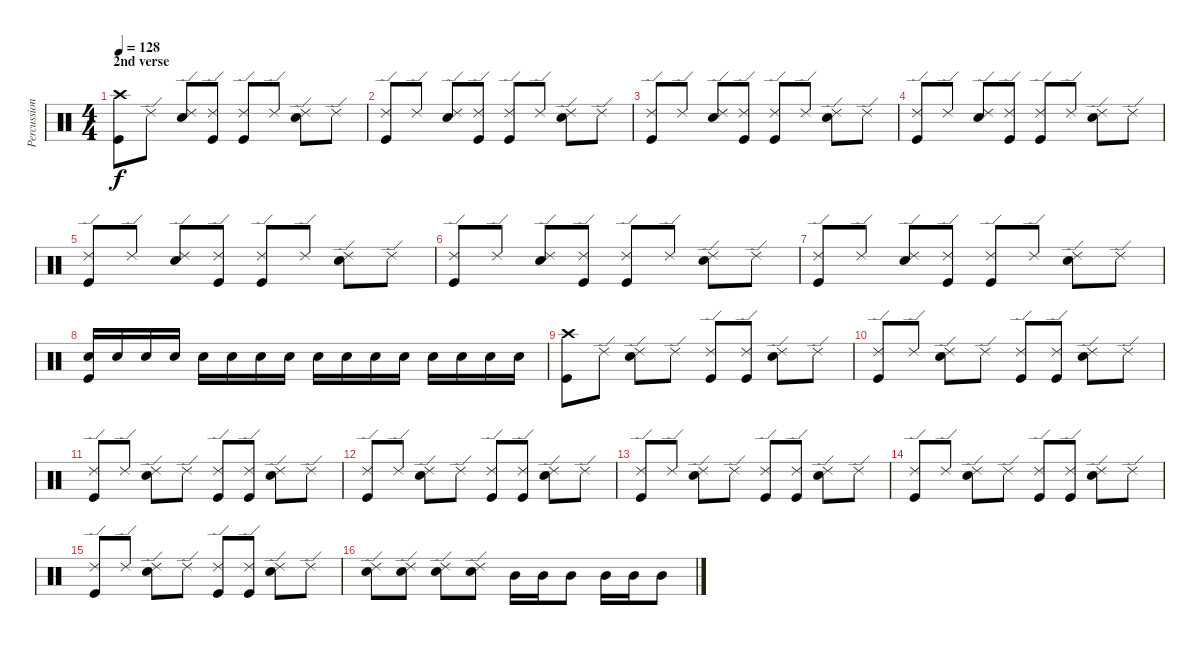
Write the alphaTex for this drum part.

\track ("Percussion" "Percussion") {instrument percussion}
\staff {score}
\articulation defaults
\ts (4 4)
\section ("" "2nd verse")
\tempo 128
\clef neutral
\ks c
("Crash high (hit)" "Kick (hit)").8{dy f} "Ride (edge) 2".8 ("Ride (edge) 2" "Snare (hit) 2").8 ("Ride (edge) 2" "Kick (hit)").8 ("Ride (edge) 2" "Kick (hit)").8 "Ride (edge) 2".8 ("Ride (edge) 2" "Snare (hit) 2").8 "Ride (edge) 2".8 |
("Ride (edge) 2" "Kick (hit)").8 "Ride (edge) 2".8 ("Ride (edge) 2" "Snare (hit) 2").8 ("Ride (edge) 2" "Kick (hit)").8 ("Ride (edge) 2" "Kick (hit)").8 "Ride (edge) 2".8 ("Ride (edge) 2" "Snare (hit) 2").8 "Ride (edge) 2".8 |
("Ride (edge) 2" "Kick (hit)").8 "Ride (edge) 2".8 ("Ride (edge) 2" "Snare (hit) 2").8 ("Ride (edge) 2" "Kick (hit)").8 ("Ride (edge) 2" "Kick (hit)").8 "Ride (edge) 2".8 ("Ride (edge) 2" "Snare (hit) 2").8 "Ride (edge) 2".8 |
("Ride (edge) 2" "Kick (hit)").8 "Ride (edge) 2".8 ("Ride (edge) 2" "Snare (hit) 2").8 ("Ride (edge) 2" "Kick (hit)").8 ("Ride (edge) 2" "Kick (hit)").8 "Ride (edge) 2".8 ("Ride (edge) 2" "Snare (hit) 2").8 "Ride (edge) 2".8 |
("Ride (edge) 2" "Kick (hit)").8 "Ride (edge) 2".8 ("Ride (edge) 2" "Snare (hit) 2").8 ("Ride (edge) 2" "Kick (hit)").8 ("Ride (edge) 2" "Kick (hit)").8 "Ride (edge) 2".8 ("Ride (edge) 2" "Snare (hit) 2").8 "Ride (edge) 2".8 |
("Ride (edge) 2" "Kick (hit)").8 "Ride (edge) 2".8 ("Ride (edge) 2" "Snare (hit) 2").8 ("Ride (edge) 2" "Kick (hit)").8 ("Ride (edge) 2" "Kick (hit)").8 "Ride (edge) 2".8 ("Ride (edge) 2" "Snare (hit) 2").8 "Ride (edge) 2".8 |
("Ride (edge) 2" "Kick (hit)").8 "Ride (edge) 2".8 ("Ride (edge) 2" "Snare (hit) 2").8 ("Ride (edge) 2" "Kick (hit)").8 ("Ride (edge) 2" "Kick (hit)").8 "Ride (edge) 2".8 ("Ride (edge) 2" "Snare (hit) 2").8 "Ride (edge) 2".8 |
("Snare (hit) 2" "Kick (hit)").16 "Snare (hit) 2".16 "Snare (hit) 2".16 "Snare (hit) 2".16 "Snare (hit) 2".16 "Snare (hit) 2".16 "Snare (hit) 2".16 "Snare (hit) 2".16 "Snare (hit) 2".16 "Snare (hit) 2".16 "Snare (hit) 2".16 "Snare (hit) 2".16 "Snare (hit) 2".16 "Snare (hit) 2".16 "Snare (hit) 2".16 "Snare (hit) 2".16 |
("Crash high (hit)" "Kick (hit)").8 "Ride (edge) 2".8 ("Ride (edge) 2" "Snare (hit) 2").8 "Ride (edge) 2".8 ("Ride (edge) 2" "Kick (hit)").8 ("Ride (edge) 2" "Kick (hit)").8 ("Ride (edge) 2" "Snare (hit) 2").8 "Ride (edge) 2".8 |
("Ride (edge) 2" "Kick (hit)").8 "Ride (edge) 2".8 ("Ride (edge) 2" "Snare (hit) 2").8 "Ride (edge) 2".8 ("Ride (edge) 2" "Kick (hit)").8 ("Ride (edge) 2" "Kick (hit)").8 ("Ride (edge) 2" "Snare (hit) 2").8 "Ride (edge) 2".8 |
("Ride (edge) 2" "Kick (hit)").8 "Ride (edge) 2".8 ("Ride (edge) 2" "Snare (hit) 2").8 "Ride (edge) 2".8 ("Ride (edge) 2" "Kick (hit)").8 ("Ride (edge) 2" "Kick (hit)").8 ("Ride (edge) 2" "Snare (hit) 2").8 "Ride (edge) 2".8 |
("Ride (edge) 2" "Kick (hit)").8 "Ride (edge) 2".8 ("Ride (edge) 2" "Snare (hit) 2").8 "Ride (edge) 2".8 ("Ride (edge) 2" "Kick (hit)").8 ("Ride (edge) 2" "Kick (hit)").8 ("Ride (edge) 2" "Snare (hit) 2").8 "Ride (edge) 2".8 |
("Ride (edge) 2" "Kick (hit)").8 "Ride (edge) 2".8 ("Ride (edge) 2" "Snare (hit) 2").8 "Ride (edge) 2".8 ("Ride (edge) 2" "Kick (hit)").8 ("Ride (edge) 2" "Kick (hit)").8 ("Ride (edge) 2" "Snare (hit) 2").8 "Ride (edge) 2".8 |
("Ride (edge) 2" "Kick (hit)").8 "Ride (edge) 2".8 ("Ride (edge) 2" "Snare (hit) 2").8 "Ride (edge) 2".8 ("Ride (edge) 2" "Kick (hit)").8 ("Ride (edge) 2" "Kick (hit)").8 ("Ride (edge) 2" "Snare (hit) 2").8 "Ride (edge) 2".8 |
("Ride (edge) 2" "Kick (hit)").8 "Ride (edge) 2".8 ("Ride (edge) 2" "Snare (hit) 2").8 "Ride (edge) 2".8 ("Ride (edge) 2" "Kick (hit)").8 ("Ride (edge) 2" "Kick (hit)").8 ("Ride (edge) 2" "Snare (hit) 2").8 "Ride (edge) 2".8 |
("Ride (edge) 2" "Snare (hit) 2").8 ("Ride (edge) 2" "Snare (hit) 2").8 ("Ride (edge) 2" "Snare (hit) 2").8 ("Ride (edge) 2" "Snare (hit) 2").8 "Mid Tom (hit)".16 "Mid Tom (hit)".16 "Mid Tom (hit)".8 "Mid Tom (hit)".16 "Mid Tom (hit)".16 "Mid Tom (hit)".8
